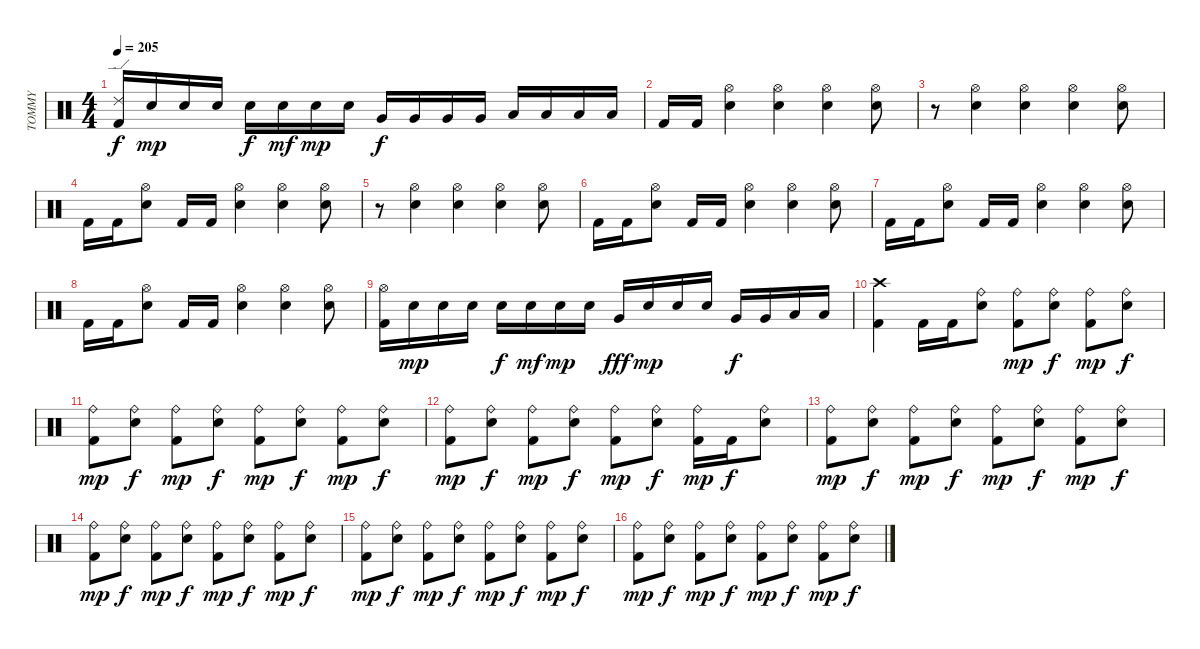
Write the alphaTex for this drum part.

\track ("TOMMY" "TOMMY") {instrument percussion}
\staff {score}
\articulation defaults
\ts (4 4)
\tempo 205
\clef neutral
\ks c
("Kick (hit) 2" "Ride (edge) 2").16{dy f} "Snare (hit) 2".16{dy mp} "Snare (hit) 2".16 "Snare (hit) 2".16 "Snare (hit) 2".16{dy f} "Snare (hit) 2".16{dy mf} "Snare (hit) 2".16{dy mp} "Snare (hit) 2".16 "Very Low Tom (hit)".16{dy f} "Very Low Tom (hit)".16 "Very Low Tom (hit)".16 "Very Low Tom (hit)".16 "Low Floor Tom (hit)".16 "Low Floor Tom (hit)".16 "Low Floor Tom (hit)".16 "Low Floor Tom (hit)".16 |
"Kick (hit) 2".16 "Kick (hit) 2".16 ("Snare (hit) 2" "Hi-Hat (open)").4 ("Snare (hit) 2" "Hi-Hat (open)").4 ("Snare (hit) 2" "Hi-Hat (open)").4 ("Snare (hit) 2" "Hi-Hat (open)").8 |
r.8 ("Snare (hit) 2" "Hi-Hat (open)").4 ("Snare (hit) 2" "Hi-Hat (open)").4 ("Snare (hit) 2" "Hi-Hat (open)").4 ("Snare (hit) 2" "Hi-Hat (open)").8 |
"Kick (hit) 2".16 "Kick (hit) 2".16 ("Snare (hit) 2" "Hi-Hat (open)").8 "Kick (hit) 2".16 "Kick (hit) 2".16 ("Snare (hit) 2" "Hi-Hat (open)").4 ("Snare (hit) 2" "Hi-Hat (open)").4 ("Snare (hit) 2" "Hi-Hat (open)").8 |
r.8 ("Snare (hit) 2" "Hi-Hat (open)").4 ("Snare (hit) 2" "Hi-Hat (open)").4 ("Snare (hit) 2" "Hi-Hat (open)").4 ("Snare (hit) 2" "Hi-Hat (open)").8 |
"Kick (hit) 2".16 "Kick (hit) 2".16 ("Snare (hit) 2" "Hi-Hat (open)").8 "Kick (hit) 2".16 "Kick (hit) 2".16 ("Snare (hit) 2" "Hi-Hat (open)").4 ("Snare (hit) 2" "Hi-Hat (open)").4 ("Snare (hit) 2" "Hi-Hat (open)").8 |
"Kick (hit) 2".16 "Kick (hit) 2".16 ("Snare (hit) 2" "Hi-Hat (open)").8 "Kick (hit) 2".16 "Kick (hit) 2".16 ("Snare (hit) 2" "Hi-Hat (open)").4 ("Snare (hit) 2" "Hi-Hat (open)").4 ("Snare (hit) 2" "Hi-Hat (open)").8 |
"Kick (hit) 2".16 "Kick (hit) 2".16 ("Snare (hit) 2" "Hi-Hat (open)").8 "Kick (hit) 2".16 "Kick (hit) 2".16 ("Snare (hit) 2" "Hi-Hat (open)").4 ("Snare (hit) 2" "Hi-Hat (open)").4 ("Snare (hit) 2" "Hi-Hat (open)").8 |
("Kick (hit) 2" "Hi-Hat (open)").16 "Snare (hit) 2".16{dy mp} "Snare (hit) 2".16 "Snare (hit) 2".16 "Snare (hit) 2".16{dy f} "Snare (hit) 2".16{dy mf} "Snare (hit) 2".16{dy mp} "Snare (hit) 2".16 "Very Low Tom (hit)".16{dy fff} "Snare (hit) 2".16{dy mp} "Snare (hit) 2".16 "Snare (hit) 2".16 "Very Low Tom (hit)".16{dy f} "Very Low Tom (hit)".16 "Low Floor Tom (hit)".16 "Low Floor Tom (hit)".16 |
("Kick (hit) 2" "Crash high (hit)").4 "Kick (hit) 2".16 "Kick (hit) 2".16 ("Snare (hit) 2" "Ride (bell)").8 ("Kick (hit) 2" "Ride (bell)").8{dy mp} ("Snare (hit) 2" "Ride (bell)").8{dy f} ("Kick (hit) 2" "Ride (bell)").8{dy mp} ("Snare (hit) 2" "Ride (bell)").8{dy f} |
("Kick (hit) 2" "Ride (bell)").8{dy mp} ("Snare (hit) 2" "Ride (bell)").8{dy f} ("Kick (hit) 2" "Ride (bell)").8{dy mp} ("Snare (hit) 2" "Ride (bell)").8{dy f} ("Kick (hit) 2" "Ride (bell)").8{dy mp} ("Snare (hit) 2" "Ride (bell)").8{dy f} ("Kick (hit) 2" "Ride (bell)").8{dy mp} ("Snare (hit) 2" "Ride (bell)").8{dy f} |
("Kick (hit) 2" "Ride (bell)").8{dy mp} ("Snare (hit) 2" "Ride (bell)").8{dy f} ("Kick (hit) 2" "Ride (bell)").8{dy mp} ("Snare (hit) 2" "Ride (bell)").8{dy f} ("Kick (hit) 2" "Ride (bell)").8{dy mp} ("Snare (hit) 2" "Ride (bell)").8{dy f} ("Kick (hit) 2" "Ride (bell)").16{dy mp} "Kick (hit) 2".16{dy f} ("Snare (hit) 2" "Ride (bell)").8 |
("Kick (hit) 2" "Ride (bell)").8{dy mp} ("Snare (hit) 2" "Ride (bell)").8{dy f} ("Kick (hit) 2" "Ride (bell)").8{dy mp} ("Snare (hit) 2" "Ride (bell)").8{dy f} ("Kick (hit) 2" "Ride (bell)").8{dy mp} ("Snare (hit) 2" "Ride (bell)").8{dy f} ("Kick (hit) 2" "Ride (bell)").8{dy mp} ("Snare (hit) 2" "Ride (bell)").8{dy f} |
("Kick (hit) 2" "Ride (bell)").8{dy mp} ("Snare (hit) 2" "Ride (bell)").8{dy f} ("Kick (hit) 2" "Ride (bell)").8{dy mp} ("Snare (hit) 2" "Ride (bell)").8{dy f} ("Kick (hit) 2" "Ride (bell)").8{dy mp} ("Snare (hit) 2" "Ride (bell)").8{dy f} ("Kick (hit) 2" "Ride (bell)").8{dy mp} ("Snare (hit) 2" "Ride (bell)").8{dy f} |
("Kick (hit) 2" "Ride (bell)").8{dy mp} ("Snare (hit) 2" "Ride (bell)").8{dy f} ("Kick (hit) 2" "Ride (bell)").8{dy mp} ("Snare (hit) 2" "Ride (bell)").8{dy f} ("Kick (hit) 2" "Ride (bell)").8{dy mp} ("Snare (hit) 2" "Ride (bell)").8{dy f} ("Kick (hit) 2" "Ride (bell)").8{dy mp} ("Snare (hit) 2" "Ride (bell)").8{dy f} |
("Kick (hit) 2" "Ride (bell)").8{dy mp} ("Snare (hit) 2" "Ride (bell)").8{dy f} ("Kick (hit) 2" "Ride (bell)").8{dy mp} ("Snare (hit) 2" "Ride (bell)").8{dy f} ("Kick (hit) 2" "Ride (bell)").8{dy mp} ("Snare (hit) 2" "Ride (bell)").8{dy f} ("Kick (hit) 2" "Ride (bell)").8{dy mp} ("Snare (hit) 2" "Ride (bell)").8{dy f}
